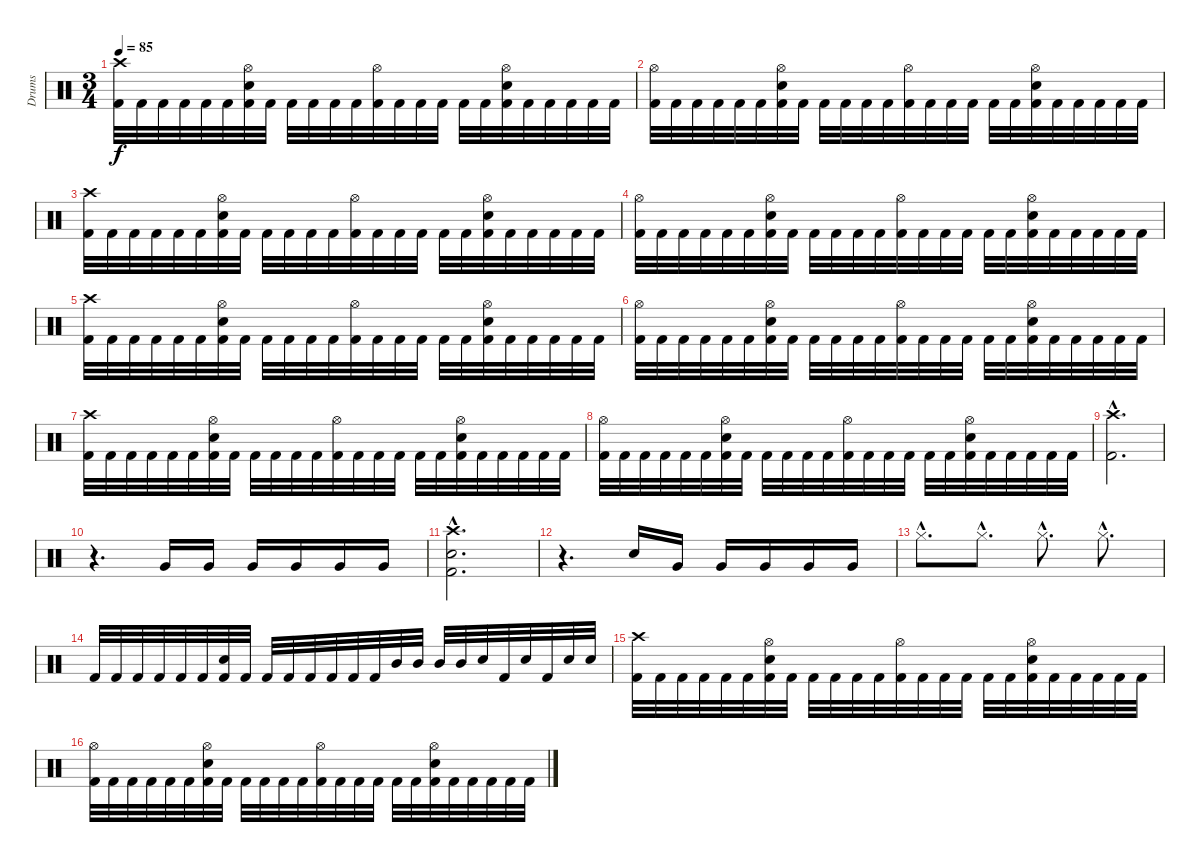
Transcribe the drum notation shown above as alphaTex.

\track ("Drums" "Drums") {instrument percussion}
\staff {score}
\articulation defaults
\ts (3 4)
\tempo 85
\clef neutral
\ks c
("Crash high (hit)" "Kick (hit) 2").32{dy f} "Kick (hit) 2".32 "Kick (hit) 2".32 "Kick (hit) 2".32 "Kick (hit) 2".32 "Kick (hit) 2".32 ("Snare (hit) 2" "Hi-Hat (open)" "Kick (hit) 2").32 "Kick (hit) 2".32 "Kick (hit) 2".32 "Kick (hit) 2".32 "Kick (hit) 2".32 "Kick (hit) 2".32 ("Hi-Hat (open)" "Kick (hit) 2").32 "Kick (hit) 2".32 "Kick (hit) 2".32 "Kick (hit) 2".32 "Kick (hit) 2".32 "Kick (hit) 2".32 ("Snare (hit) 2" "Hi-Hat (open)" "Kick (hit) 2").32 "Kick (hit) 2".32 "Kick (hit) 2".32 "Kick (hit) 2".32 "Kick (hit) 2".32 "Kick (hit) 2".32 |
("Hi-Hat (open)" "Kick (hit) 2").32 "Kick (hit) 2".32 "Kick (hit) 2".32 "Kick (hit) 2".32 "Kick (hit) 2".32 "Kick (hit) 2".32 ("Snare (hit) 2" "Hi-Hat (open)" "Kick (hit) 2").32 "Kick (hit) 2".32 "Kick (hit) 2".32 "Kick (hit) 2".32 "Kick (hit) 2".32 "Kick (hit) 2".32 ("Hi-Hat (open)" "Kick (hit) 2").32 "Kick (hit) 2".32 "Kick (hit) 2".32 "Kick (hit) 2".32 "Kick (hit) 2".32 "Kick (hit) 2".32 ("Snare (hit) 2" "Hi-Hat (open)" "Kick (hit) 2").32 "Kick (hit) 2".32 "Kick (hit) 2".32 "Kick (hit) 2".32 "Kick (hit) 2".32 "Kick (hit) 2".32 |
("Crash high (hit)" "Kick (hit) 2").32 "Kick (hit) 2".32 "Kick (hit) 2".32 "Kick (hit) 2".32 "Kick (hit) 2".32 "Kick (hit) 2".32 ("Snare (hit) 2" "Hi-Hat (open)" "Kick (hit) 2").32 "Kick (hit) 2".32 "Kick (hit) 2".32 "Kick (hit) 2".32 "Kick (hit) 2".32 "Kick (hit) 2".32 ("Hi-Hat (open)" "Kick (hit) 2").32 "Kick (hit) 2".32 "Kick (hit) 2".32 "Kick (hit) 2".32 "Kick (hit) 2".32 "Kick (hit) 2".32 ("Snare (hit) 2" "Hi-Hat (open)" "Kick (hit) 2").32 "Kick (hit) 2".32 "Kick (hit) 2".32 "Kick (hit) 2".32 "Kick (hit) 2".32 "Kick (hit) 2".32 |
("Hi-Hat (open)" "Kick (hit) 2").32 "Kick (hit) 2".32 "Kick (hit) 2".32 "Kick (hit) 2".32 "Kick (hit) 2".32 "Kick (hit) 2".32 ("Snare (hit) 2" "Hi-Hat (open)" "Kick (hit) 2").32 "Kick (hit) 2".32 "Kick (hit) 2".32 "Kick (hit) 2".32 "Kick (hit) 2".32 "Kick (hit) 2".32 ("Hi-Hat (open)" "Kick (hit) 2").32 "Kick (hit) 2".32 "Kick (hit) 2".32 "Kick (hit) 2".32 "Kick (hit) 2".32 "Kick (hit) 2".32 ("Snare (hit) 2" "Hi-Hat (open)" "Kick (hit) 2").32 "Kick (hit) 2".32 "Kick (hit) 2".32 "Kick (hit) 2".32 "Kick (hit) 2".32 "Kick (hit) 2".32 |
("Crash high (hit)" "Kick (hit) 2").32 "Kick (hit) 2".32 "Kick (hit) 2".32 "Kick (hit) 2".32 "Kick (hit) 2".32 "Kick (hit) 2".32 ("Snare (hit) 2" "Hi-Hat (open)" "Kick (hit) 2").32 "Kick (hit) 2".32 "Kick (hit) 2".32 "Kick (hit) 2".32 "Kick (hit) 2".32 "Kick (hit) 2".32 ("Hi-Hat (open)" "Kick (hit) 2").32 "Kick (hit) 2".32 "Kick (hit) 2".32 "Kick (hit) 2".32 "Kick (hit) 2".32 "Kick (hit) 2".32 ("Snare (hit) 2" "Hi-Hat (open)" "Kick (hit) 2").32 "Kick (hit) 2".32 "Kick (hit) 2".32 "Kick (hit) 2".32 "Kick (hit) 2".32 "Kick (hit) 2".32 |
("Hi-Hat (open)" "Kick (hit) 2").32 "Kick (hit) 2".32 "Kick (hit) 2".32 "Kick (hit) 2".32 "Kick (hit) 2".32 "Kick (hit) 2".32 ("Snare (hit) 2" "Hi-Hat (open)" "Kick (hit) 2").32 "Kick (hit) 2".32 "Kick (hit) 2".32 "Kick (hit) 2".32 "Kick (hit) 2".32 "Kick (hit) 2".32 ("Hi-Hat (open)" "Kick (hit) 2").32 "Kick (hit) 2".32 "Kick (hit) 2".32 "Kick (hit) 2".32 "Kick (hit) 2".32 "Kick (hit) 2".32 ("Snare (hit) 2" "Hi-Hat (open)" "Kick (hit) 2").32 "Kick (hit) 2".32 "Kick (hit) 2".32 "Kick (hit) 2".32 "Kick (hit) 2".32 "Kick (hit) 2".32 |
("Crash high (hit)" "Kick (hit) 2").32 "Kick (hit) 2".32 "Kick (hit) 2".32 "Kick (hit) 2".32 "Kick (hit) 2".32 "Kick (hit) 2".32 ("Snare (hit) 2" "Hi-Hat (open)" "Kick (hit) 2").32 "Kick (hit) 2".32 "Kick (hit) 2".32 "Kick (hit) 2".32 "Kick (hit) 2".32 "Kick (hit) 2".32 ("Hi-Hat (open)" "Kick (hit) 2").32 "Kick (hit) 2".32 "Kick (hit) 2".32 "Kick (hit) 2".32 "Kick (hit) 2".32 "Kick (hit) 2".32 ("Snare (hit) 2" "Hi-Hat (open)" "Kick (hit) 2").32 "Kick (hit) 2".32 "Kick (hit) 2".32 "Kick (hit) 2".32 "Kick (hit) 2".32 "Kick (hit) 2".32 |
("Hi-Hat (open)" "Kick (hit) 2").32 "Kick (hit) 2".32 "Kick (hit) 2".32 "Kick (hit) 2".32 "Kick (hit) 2".32 "Kick (hit) 2".32 ("Snare (hit) 2" "Hi-Hat (open)" "Kick (hit) 2").32 "Kick (hit) 2".32 "Kick (hit) 2".32 "Kick (hit) 2".32 "Kick (hit) 2".32 "Kick (hit) 2".32 ("Hi-Hat (open)" "Kick (hit) 2").32 "Kick (hit) 2".32 "Kick (hit) 2".32 "Kick (hit) 2".32 "Kick (hit) 2".32 "Kick (hit) 2".32 ("Snare (hit) 2" "Hi-Hat (open)" "Kick (hit) 2").32 "Kick (hit) 2".32 "Kick (hit) 2".32 "Kick (hit) 2".32 "Kick (hit) 2".32 "Kick (hit) 2".32 |
("Crash high (hit)"{hac} "Kick (hit) 2"{hac}).2{d} |
r.4{d} "Very Low Tom (hit)".16 "Very Low Tom (hit)".16 "Very Low Tom (hit)".16 "Very Low Tom (hit)".16 "Very Low Tom (hit)".16 "Very Low Tom (hit)".16 |
("Snare (hit) 2"{hac} "Kick (hit) 2"{hac} "Crash high (hit)"{hac}).2{d} |
r.4{d} "Snare (hit) 2".16 "Very Low Tom (hit)".16 "Very Low Tom (hit)".16 "Very Low Tom (hit)".16 "Very Low Tom (hit)".16 "Very Low Tom (hit)".16 |
"Hi-Hat (closed)"{hac}.8{d} "Hi-Hat (closed)"{hac}.8{d} "Hi-Hat (closed)"{hac}.8{d} "Hi-Hat (closed)"{hac}.8{d} |
"Kick (hit) 2".32 "Kick (hit) 2".32 "Kick (hit) 2".32 "Kick (hit) 2".32 "Kick (hit) 2".32 "Kick (hit) 2".32 ("Snare (hit) 2" "Kick (hit) 2").32 "Kick (hit) 2".32 "Kick (hit) 2".32 "Kick (hit) 2".32 "Kick (hit) 2".32 "Kick (hit) 2".32 "Kick (hit) 2".32 "Kick (hit) 2".32 "Mid Tom (hit)".32 "Mid Tom (hit)".32 "Mid Tom (hit)".32 "Mid Tom (hit)".32 "Snare (hit) 2".32 "Kick (hit) 2".32 "Snare (hit) 2".32 "Kick (hit) 2".32 "Snare (hit) 2".32 "Snare (hit) 2".32 |
("Crash high (hit)" "Kick (hit) 2").32 "Kick (hit) 2".32 "Kick (hit) 2".32 "Kick (hit) 2".32 "Kick (hit) 2".32 "Kick (hit) 2".32 ("Snare (hit) 2" "Hi-Hat (open)" "Kick (hit) 2").32 "Kick (hit) 2".32 "Kick (hit) 2".32 "Kick (hit) 2".32 "Kick (hit) 2".32 "Kick (hit) 2".32 ("Hi-Hat (open)" "Kick (hit) 2").32 "Kick (hit) 2".32 "Kick (hit) 2".32 "Kick (hit) 2".32 "Kick (hit) 2".32 "Kick (hit) 2".32 ("Snare (hit) 2" "Hi-Hat (open)" "Kick (hit) 2").32 "Kick (hit) 2".32 "Kick (hit) 2".32 "Kick (hit) 2".32 "Kick (hit) 2".32 "Kick (hit) 2".32 |
("Hi-Hat (open)" "Kick (hit) 2").32 "Kick (hit) 2".32 "Kick (hit) 2".32 "Kick (hit) 2".32 "Kick (hit) 2".32 "Kick (hit) 2".32 ("Snare (hit) 2" "Hi-Hat (open)" "Kick (hit) 2").32 "Kick (hit) 2".32 "Kick (hit) 2".32 "Kick (hit) 2".32 "Kick (hit) 2".32 "Kick (hit) 2".32 ("Hi-Hat (open)" "Kick (hit) 2").32 "Kick (hit) 2".32 "Kick (hit) 2".32 "Kick (hit) 2".32 "Kick (hit) 2".32 "Kick (hit) 2".32 ("Snare (hit) 2" "Hi-Hat (open)" "Kick (hit) 2").32 "Kick (hit) 2".32 "Kick (hit) 2".32 "Kick (hit) 2".32 "Kick (hit) 2".32 "Kick (hit) 2".32
